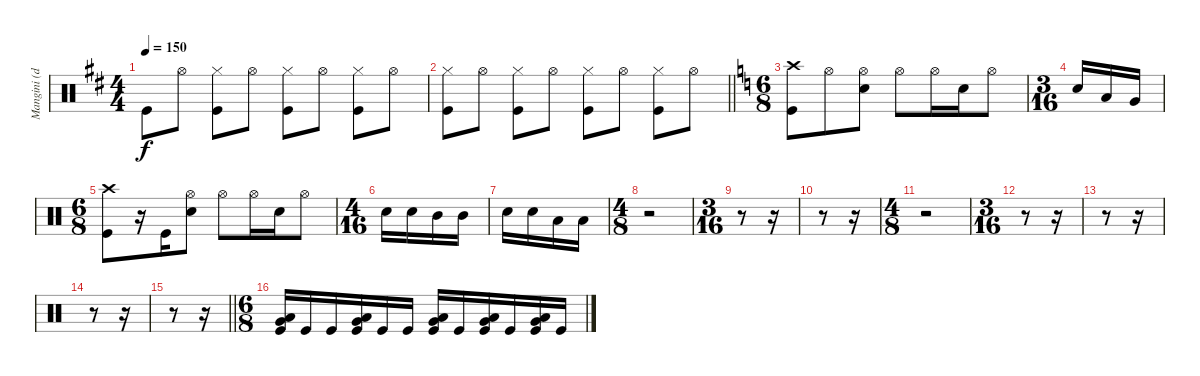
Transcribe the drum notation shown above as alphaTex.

\track ("Mangini (drums)" "Mangini (d") {instrument percussion}
\staff {score}
\articulation defaults
\ts (4 4)
\tempo 150
\clef neutral
\ks d "Kick (hit)".8{dy f} "Hi-Hat (open)".8
("Hi-Hat (closed)" "Kick (hit)").8 "Hi-Hat (open)".8 ("Hi-Hat (closed)" "Kick (hit)").8 "Hi-Hat (open)".8 ("Hi-Hat (closed)" "Kick (hit)").8 "Hi-Hat (open)".8 |
\barLineRight lightlight
("Hi-Hat (closed)" "Kick (hit)").8 "Hi-Hat (open)".8 ("Hi-Hat (closed)" "Kick (hit)").8 "Hi-Hat (open)".8 ("Hi-Hat (closed)" "Kick (hit)").8 "Hi-Hat (open)".8 ("Hi-Hat (closed)" "Kick (hit)").8 "Hi-Hat (open)".8 |
\ts (6 8)
\ks aminor
("Crash high (hit)" "Kick (hit)").8 "Hi-Hat (open)".8 ("Hi-Hat (open)" "Snare (hit) 2").8 "Hi-Hat (open)".8 "Hi-Hat (open)".16 "Snare (hit) 2".16 "Hi-Hat (open)".8 |
\ts (3 16)
"Snare (hit) 2".16{beam merge} "Low Tom (hit)".16{beam merge} "Very Low Tom (hit)".16 |
\ts (6 8)
("Crash high (hit)" "Kick (hit)").8 r.16 "Kick (hit)".16 ("Hi-Hat (open)" "Snare (hit) 2").8 "Hi-Hat (open)".8 "Hi-Hat (open)".16 "Snare (hit) 2".16 "Hi-Hat (open)".8 |
\ts (4 16)
"Snare (hit) 2".16{beam merge} "Snare (hit) 2".16{beam merge} "Mid Tom (hit)".16{beam merge} "Mid Tom (hit)".16 |
"Snare (hit) 2".16{beam merge} "Snare (hit) 2".16{beam merge} "Low Tom (hit)".16{beam merge} "Low Tom (hit)".16 |
\ts (4 8)
r.2 |
\ts (3 16)
r.8 r.16 |
r.8 r.16 |
\ts (4 8)
r.2 |
\ts (3 16)
r.8 r.16 |
r.8 r.16 |
r.8 r.16 |
\barLineRight lightlight
r.8 r.16 |
\ts (6 8)
("Very Low Tom (hit)" "Low Tom (hit)" "Kick (hit)").16 "Kick (hit)".16 "Kick (hit)".16 ("Very Low Tom (hit)" "Low Tom (hit)" "Kick (hit)").16 "Kick (hit)".16 "Kick (hit)".16 ("Very Low Tom (hit)" "Low Tom (hit)" "Kick (hit)").16 "Kick (hit)".16 ("Very Low Tom (hit)" "Low Tom (hit)" "Kick (hit)").16 "Kick (hit)".16 ("Very Low Tom (hit)" "Low Tom (hit)" "Kick (hit)").16 "Kick (hit)".16
